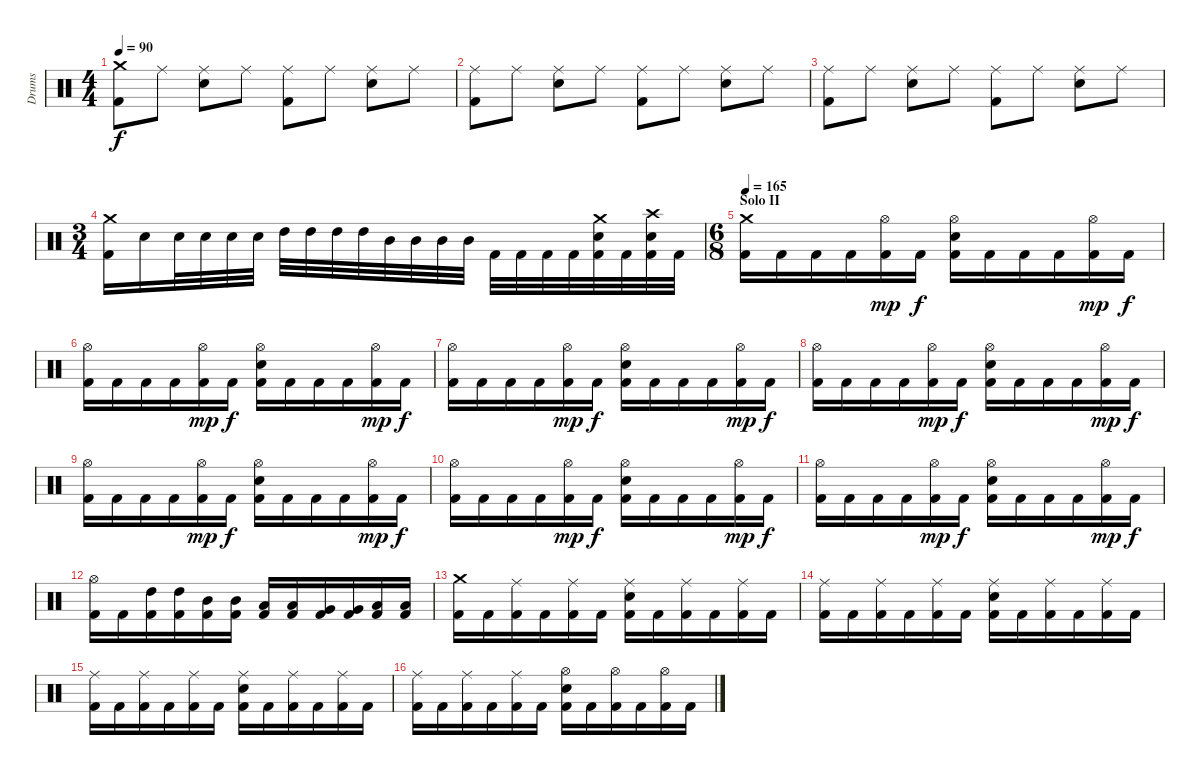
\track ("Drums" "Drums") {instrument percussion}
\staff {score}
\articulation defaults
\ts (4 4)
\tempo 90
\clef neutral
\ks c
("Kick (hit) 2" "Crash medium (hit)").8{dy f} "Ride (middle)".8 ("Electric Snare (hit)" "Ride (middle)").8 "Ride (middle)".8 ("Kick (hit) 2" "Ride (middle)").8 "Ride (middle)".8 ("Electric Snare (hit)" "Ride (middle)").8 "Ride (middle)".8 |
("Kick (hit) 2" "Ride (middle)").8 "Ride (middle)".8 ("Electric Snare (hit)" "Ride (middle)").8 "Ride (middle)".8 ("Kick (hit) 2" "Ride (middle)").8 "Ride (middle)".8 ("Electric Snare (hit)" "Ride (middle)").8 "Ride (middle)".8 |
("Kick (hit) 2" "Ride (middle)").8 "Ride (middle)".8 ("Electric Snare (hit)" "Ride (middle)").8 "Ride (middle)".8 ("Kick (hit) 2" "Ride (middle)").8 "Ride (middle)".8 ("Electric Snare (hit)" "Ride (middle)").8 "Ride (middle)".8 |
\ts (3 4)
("Kick (hit) 2" "Crash medium (hit)").16 "Electric Snare (hit)".16 "Electric Snare (hit)".32 "Electric Snare (hit)".32 "Electric Snare (hit)".32 "Electric Snare (hit)".32 "High Tom (hit)".32 "High Tom (hit)".32 "High Tom (hit)".32 "High Tom (hit)".32 "Mid Tom (hit)".32 "Mid Tom (hit)".32 "Mid Tom (hit)".32 "Mid Tom (hit)".32 "Kick (hit) 2".32 "Kick (hit) 2".32 "Kick (hit) 2".32 "Kick (hit) 2".32 ("Kick (hit) 2" "Electric Snare (hit)" "Crash medium (hit)").32 "Kick (hit) 2".32 ("Kick (hit) 2" "Electric Snare (hit)" "Crash high (hit)").32 "Kick (hit) 2".32 |
\ts (6 8)
\section ("" "Solo II")
\tempo 165
("Kick (hit) 2" "Crash medium (hit)").16 "Kick (hit) 2".16 "Kick (hit) 2".16 "Kick (hit) 2".16 ("Kick (hit) 2" "Hi-Hat (open)").16{dy mp} "Kick (hit) 2".16{dy f} ("Kick (hit) 2" "Electric Snare (hit)" "Hi-Hat (open)").16 "Kick (hit) 2".16 "Kick (hit) 2".16 "Kick (hit) 2".16 ("Kick (hit) 2" "Hi-Hat (open)").16{dy mp} "Kick (hit) 2".16{dy f} |
("Kick (hit) 2" "Hi-Hat (open)").16 "Kick (hit) 2".16 "Kick (hit) 2".16 "Kick (hit) 2".16 ("Kick (hit) 2" "Hi-Hat (open)").16{dy mp} "Kick (hit) 2".16{dy f} ("Kick (hit) 2" "Electric Snare (hit)" "Hi-Hat (open)").16 "Kick (hit) 2".16 "Kick (hit) 2".16 "Kick (hit) 2".16 ("Kick (hit) 2" "Hi-Hat (open)").16{dy mp} "Kick (hit) 2".16{dy f} |
("Kick (hit) 2" "Hi-Hat (open)").16 "Kick (hit) 2".16 "Kick (hit) 2".16 "Kick (hit) 2".16 ("Kick (hit) 2" "Hi-Hat (open)").16{dy mp} "Kick (hit) 2".16{dy f} ("Kick (hit) 2" "Electric Snare (hit)" "Hi-Hat (open)").16 "Kick (hit) 2".16 "Kick (hit) 2".16 "Kick (hit) 2".16 ("Kick (hit) 2" "Hi-Hat (open)").16{dy mp} "Kick (hit) 2".16{dy f} |
("Kick (hit) 2" "Hi-Hat (open)").16 "Kick (hit) 2".16 "Kick (hit) 2".16 "Kick (hit) 2".16 ("Kick (hit) 2" "Hi-Hat (open)").16{dy mp} "Kick (hit) 2".16{dy f} ("Kick (hit) 2" "Electric Snare (hit)" "Hi-Hat (open)").16 "Kick (hit) 2".16 "Kick (hit) 2".16 "Kick (hit) 2".16 ("Kick (hit) 2" "Hi-Hat (open)").16{dy mp} "Kick (hit) 2".16{dy f} |
("Kick (hit) 2" "Hi-Hat (open)").16 "Kick (hit) 2".16 "Kick (hit) 2".16 "Kick (hit) 2".16 ("Kick (hit) 2" "Hi-Hat (open)").16{dy mp} "Kick (hit) 2".16{dy f} ("Kick (hit) 2" "Electric Snare (hit)" "Hi-Hat (open)").16 "Kick (hit) 2".16 "Kick (hit) 2".16 "Kick (hit) 2".16 ("Kick (hit) 2" "Hi-Hat (open)").16{dy mp} "Kick (hit) 2".16{dy f} |
("Kick (hit) 2" "Hi-Hat (open)").16 "Kick (hit) 2".16 "Kick (hit) 2".16 "Kick (hit) 2".16 ("Kick (hit) 2" "Hi-Hat (open)").16{dy mp} "Kick (hit) 2".16{dy f} ("Kick (hit) 2" "Electric Snare (hit)" "Hi-Hat (open)").16 "Kick (hit) 2".16 "Kick (hit) 2".16 "Kick (hit) 2".16 ("Kick (hit) 2" "Hi-Hat (open)").16{dy mp} "Kick (hit) 2".16{dy f} |
("Kick (hit) 2" "Hi-Hat (open)").16 "Kick (hit) 2".16 "Kick (hit) 2".16 "Kick (hit) 2".16 ("Kick (hit) 2" "Hi-Hat (open)").16{dy mp} "Kick (hit) 2".16{dy f} ("Kick (hit) 2" "Electric Snare (hit)" "Hi-Hat (open)").16 "Kick (hit) 2".16 "Kick (hit) 2".16 "Kick (hit) 2".16 ("Kick (hit) 2" "Hi-Hat (open)").16{dy mp} "Kick (hit) 2".16{dy f} |
("Kick (hit) 2" "Hi-Hat (open)").16 "Kick (hit) 2".16 ("Kick (hit) 2" "High Tom (hit)").16 ("Kick (hit) 2" "High Tom (hit)").16 ("Kick (hit) 2" "Mid Tom (hit)").16 ("Kick (hit) 2" "Mid Tom (hit)").16 ("Kick (hit) 2" "Low Tom (hit)").16 ("Kick (hit) 2" "Low Tom (hit)").16 ("Kick (hit) 2" "Very Low Tom (hit)").16 ("Kick (hit) 2" "Very Low Tom (hit)").16 ("Kick (hit) 2" "Low Floor Tom (hit)").16 ("Kick (hit) 2" "Low Floor Tom (hit)").16 |
("Kick (hit) 2" "Crash medium (hit)").16 "Kick (hit) 2".16 ("Kick (hit) 2" "Ride (middle)").16 "Kick (hit) 2".16 ("Kick (hit) 2" "Ride (middle)").16 "Kick (hit) 2".16 ("Kick (hit) 2" "Electric Snare (hit)" "Ride (middle)").16 "Kick (hit) 2".16 ("Kick (hit) 2" "Ride (middle)").16 "Kick (hit) 2".16 ("Kick (hit) 2" "Ride (middle)").16 "Kick (hit) 2".16 |
("Kick (hit) 2" "Ride (middle)").16 "Kick (hit) 2".16 ("Kick (hit) 2" "Ride (middle)").16 "Kick (hit) 2".16 ("Kick (hit) 2" "Ride (middle)").16 "Kick (hit) 2".16 ("Kick (hit) 2" "Electric Snare (hit)" "Ride (middle)").16 "Kick (hit) 2".16 ("Kick (hit) 2" "Ride (middle)").16 "Kick (hit) 2".16 ("Kick (hit) 2" "Ride (middle)").16 "Kick (hit) 2".16 |
("Kick (hit) 2" "Ride (middle)").16 "Kick (hit) 2".16 ("Kick (hit) 2" "Ride (middle)").16 "Kick (hit) 2".16 ("Kick (hit) 2" "Ride (middle)").16 "Kick (hit) 2".16 ("Kick (hit) 2" "Electric Snare (hit)" "Ride (middle)").16 "Kick (hit) 2".16 ("Kick (hit) 2" "Ride (middle)").16 "Kick (hit) 2".16 ("Kick (hit) 2" "Ride (middle)").16 "Kick (hit) 2".16 |
("Kick (hit) 2" "Ride (middle)").16 "Kick (hit) 2".16 ("Kick (hit) 2" "Ride (middle)").16 "Kick (hit) 2".16 ("Kick (hit) 2" "Ride (middle)").16 "Kick (hit) 2".16 ("Kick (hit) 2" "Electric Snare (hit)" "Hi-Hat (open)").16 "Kick (hit) 2".16 ("Kick (hit) 2" "Hi-Hat (open)").16 "Kick (hit) 2".16 ("Kick (hit) 2" "Hi-Hat (open)").16 "Kick (hit) 2".16
